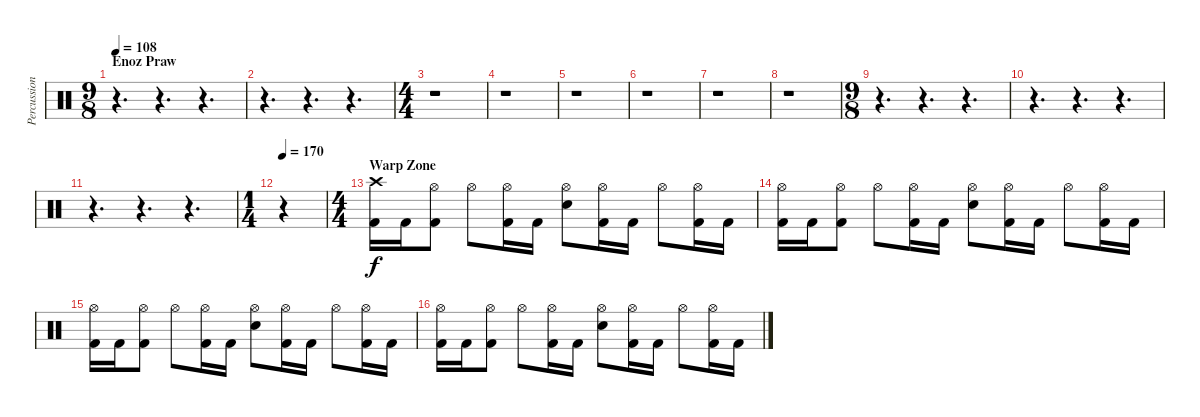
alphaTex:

\track ("Percussion" "Percussion") {instrument percussion}
\staff {score}
\articulation defaults
\ts (9 8)
\section ("" "Enoz Praw")
\tempo 108
\clef neutral
\ks c
r.4{d dy f} r.4{d} r.4{d} |
r.4{d} r.4{d} r.4{d} |
\ts (4 4)
r.1 |
r.1 |
r.1 |
r.1 |
r.1 |
r.1 |
\ts (9 8)
r.4{d} r.4{d} r.4{d} |
r.4{d} r.4{d} r.4{d} |
r.4{d} r.4{d} r.4{d} |
\ts (1 4)
\tempo 170
r.4 |
\ts (4 4)
\section ("" "Warp Zone")
("Crash high (hit)" "Kick (hit) 2").16 "Kick (hit) 2".16 ("Hi-Hat (open)" "Kick (hit) 2").8 "Hi-Hat (open)".8 ("Hi-Hat (open)" "Kick (hit) 2").16 "Kick (hit) 2".16 ("Hi-Hat (open)" "Electric Snare (hit)").8 ("Hi-Hat (open)" "Kick (hit) 2").16 "Kick (hit) 2".16 "Hi-Hat (open)".8 ("Hi-Hat (open)" "Kick (hit) 2").16 "Kick (hit) 2".16 |
("Hi-Hat (open)" "Kick (hit) 2").16 "Kick (hit) 2".16 ("Hi-Hat (open)" "Kick (hit) 2").8 "Hi-Hat (open)".8 ("Hi-Hat (open)" "Kick (hit) 2").16 "Kick (hit) 2".16 ("Hi-Hat (open)" "Electric Snare (hit)").8 ("Hi-Hat (open)" "Kick (hit) 2").16 "Kick (hit) 2".16 "Hi-Hat (open)".8 ("Hi-Hat (open)" "Kick (hit) 2").16 "Kick (hit) 2".16 |
("Hi-Hat (open)" "Kick (hit) 2").16 "Kick (hit) 2".16 ("Hi-Hat (open)" "Kick (hit) 2").8 "Hi-Hat (open)".8 ("Hi-Hat (open)" "Kick (hit) 2").16 "Kick (hit) 2".16 ("Hi-Hat (open)" "Electric Snare (hit)").8 ("Hi-Hat (open)" "Kick (hit) 2").16 "Kick (hit) 2".16 "Hi-Hat (open)".8 ("Hi-Hat (open)" "Kick (hit) 2").16 "Kick (hit) 2".16 |
("Hi-Hat (open)" "Kick (hit) 2").16 "Kick (hit) 2".16 ("Hi-Hat (open)" "Kick (hit) 2").8 "Hi-Hat (open)".8 ("Hi-Hat (open)" "Kick (hit) 2").16 "Kick (hit) 2".16 ("Hi-Hat (open)" "Electric Snare (hit)").8 ("Hi-Hat (open)" "Kick (hit) 2").16 "Kick (hit) 2".16 "Hi-Hat (open)".8 ("Hi-Hat (open)" "Kick (hit) 2").16 "Kick (hit) 2".16
